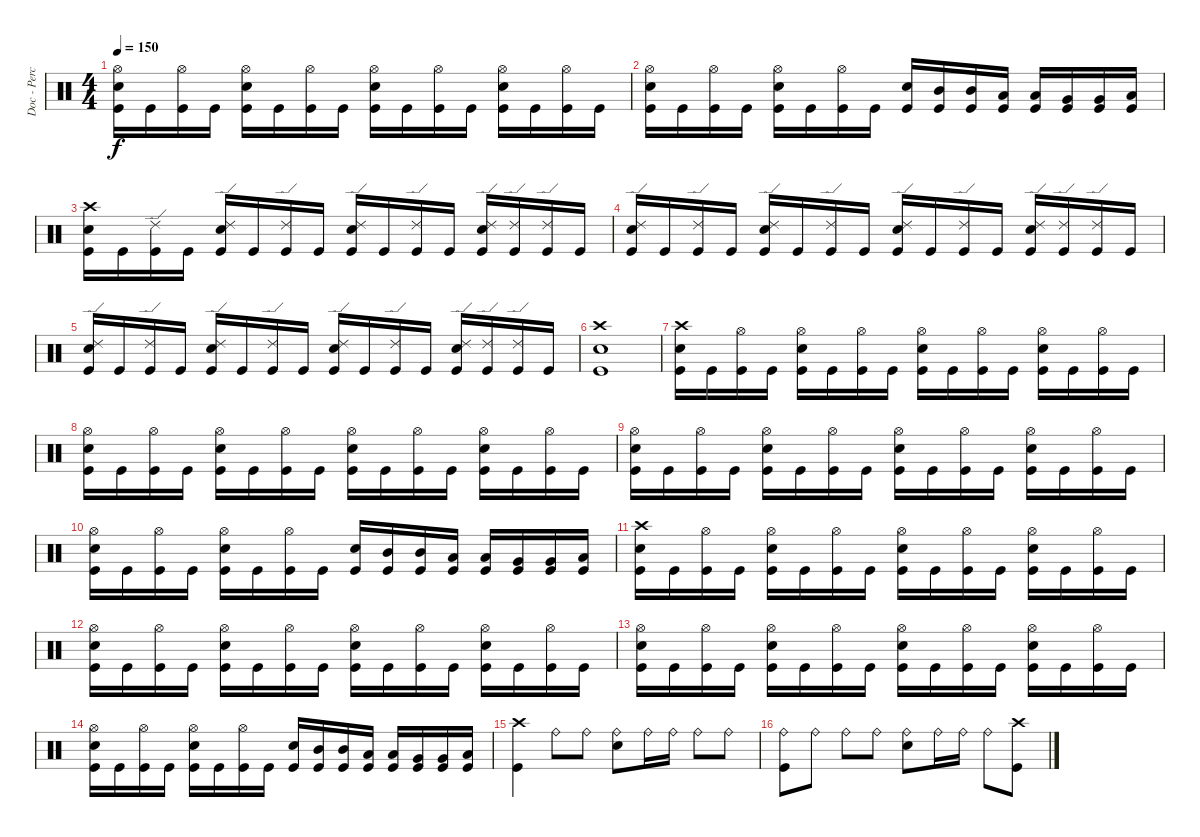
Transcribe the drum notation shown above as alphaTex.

\track ("Doc - Percussion" "Doc - Perc") {instrument percussion}
\staff {score}
\articulation defaults
\ts (4 4)
\tempo 150
\clef neutral
\ks c
("Hi-Hat (open)" "Electric Snare (hit)" "Kick (hit)").16{dy f} "Kick (hit)".16 ("Hi-Hat (open)" "Kick (hit)").16 "Kick (hit)".16 ("Hi-Hat (open)" "Electric Snare (hit)" "Kick (hit)").16 "Kick (hit)".16 ("Hi-Hat (open)" "Kick (hit)").16 "Kick (hit)".16 ("Hi-Hat (open)" "Electric Snare (hit)" "Kick (hit)").16 "Kick (hit)".16 ("Hi-Hat (open)" "Kick (hit)").16 "Kick (hit)".16 ("Hi-Hat (open)" "Electric Snare (hit)" "Kick (hit)").16 "Kick (hit)".16 ("Hi-Hat (open)" "Kick (hit)").16 "Kick (hit)".16 |
("Hi-Hat (open)" "Electric Snare (hit)" "Kick (hit)").16 "Kick (hit)".16 ("Hi-Hat (open)" "Kick (hit)").16 "Kick (hit)".16 ("Hi-Hat (open)" "Electric Snare (hit)" "Kick (hit)").16 "Kick (hit)".16 ("Hi-Hat (open)" "Kick (hit)").16 "Kick (hit)".16 ("Electric Snare (hit)" "Kick (hit)").16 ("Mid Tom (hit)" "Kick (hit)").16 ("Mid Tom (hit)" "Kick (hit)").16 ("Low Tom (hit)" "Kick (hit)").16 ("Low Tom (hit)" "Kick (hit)").16 ("Very Low Tom (hit)" "Kick (hit)").16 ("Very Low Tom (hit)" "Kick (hit)").16 ("Low Floor Tom (hit)" "Kick (hit)").16 |
("Crash high (hit)" "Electric Snare (hit)" "Kick (hit)").16 "Kick (hit)".16 ("Ride (edge) 2" "Kick (hit)").16 "Kick (hit)".16 ("Ride (edge) 2" "Electric Snare (hit)" "Kick (hit)").16 "Kick (hit)".16 ("Ride (edge) 2" "Kick (hit)").16 "Kick (hit)".16 ("Ride (edge) 2" "Electric Snare (hit)" "Kick (hit)").16 "Kick (hit)".16 ("Ride (edge) 2" "Kick (hit)").16 "Kick (hit)".16 ("Ride (edge) 2" "Electric Snare (hit)" "Kick (hit)").16 ("Ride (edge) 2" "Kick (hit)").16 ("Ride (edge) 2" "Kick (hit)").16 "Kick (hit)".16 |
("Ride (edge) 2" "Electric Snare (hit)" "Kick (hit)").16 "Kick (hit)".16 ("Ride (edge) 2" "Kick (hit)").16 "Kick (hit)".16 ("Ride (edge) 2" "Electric Snare (hit)" "Kick (hit)").16 "Kick (hit)".16 ("Ride (edge) 2" "Kick (hit)").16 "Kick (hit)".16 ("Ride (edge) 2" "Electric Snare (hit)" "Kick (hit)").16 "Kick (hit)".16 ("Ride (edge) 2" "Kick (hit)").16 "Kick (hit)".16 ("Ride (edge) 2" "Electric Snare (hit)" "Kick (hit)").16 ("Ride (edge) 2" "Kick (hit)").16 ("Ride (edge) 2" "Kick (hit)").16 "Kick (hit)".16 |
("Ride (edge) 2" "Electric Snare (hit)" "Kick (hit)").16 "Kick (hit)".16 ("Ride (edge) 2" "Kick (hit)").16 "Kick (hit)".16 ("Ride (edge) 2" "Electric Snare (hit)" "Kick (hit)").16 "Kick (hit)".16 ("Ride (edge) 2" "Kick (hit)").16 "Kick (hit)".16 ("Ride (edge) 2" "Electric Snare (hit)" "Kick (hit)").16 "Kick (hit)".16 ("Ride (edge) 2" "Kick (hit)").16 "Kick (hit)".16 ("Ride (edge) 2" "Electric Snare (hit)" "Kick (hit)").16 ("Ride (edge) 2" "Kick (hit)").16 ("Ride (edge) 2" "Kick (hit)").16 "Kick (hit)".16 |
("Crash high (hit)" "Electric Snare (hit)" "Kick (hit)").1 |
("Crash high (hit)" "Electric Snare (hit)" "Kick (hit)").16 "Kick (hit)".16 ("Hi-Hat (open)" "Kick (hit)").16 "Kick (hit)".16 ("Hi-Hat (open)" "Electric Snare (hit)" "Kick (hit)").16 "Kick (hit)".16 ("Hi-Hat (open)" "Kick (hit)").16 "Kick (hit)".16 ("Hi-Hat (open)" "Electric Snare (hit)" "Kick (hit)").16 "Kick (hit)".16 ("Hi-Hat (open)" "Kick (hit)").16 "Kick (hit)".16 ("Hi-Hat (open)" "Electric Snare (hit)" "Kick (hit)").16 "Kick (hit)".16 ("Hi-Hat (open)" "Kick (hit)").16 "Kick (hit)".16 |
("Hi-Hat (open)" "Electric Snare (hit)" "Kick (hit)").16 "Kick (hit)".16 ("Hi-Hat (open)" "Kick (hit)").16 "Kick (hit)".16 ("Hi-Hat (open)" "Electric Snare (hit)" "Kick (hit)").16 "Kick (hit)".16 ("Hi-Hat (open)" "Kick (hit)").16 "Kick (hit)".16 ("Hi-Hat (open)" "Electric Snare (hit)" "Kick (hit)").16 "Kick (hit)".16 ("Hi-Hat (open)" "Kick (hit)").16 "Kick (hit)".16 ("Hi-Hat (open)" "Electric Snare (hit)" "Kick (hit)").16 "Kick (hit)".16 ("Hi-Hat (open)" "Kick (hit)").16 "Kick (hit)".16 |
("Hi-Hat (open)" "Electric Snare (hit)" "Kick (hit)").16 "Kick (hit)".16 ("Hi-Hat (open)" "Kick (hit)").16 "Kick (hit)".16 ("Hi-Hat (open)" "Electric Snare (hit)" "Kick (hit)").16 "Kick (hit)".16 ("Hi-Hat (open)" "Kick (hit)").16 "Kick (hit)".16 ("Hi-Hat (open)" "Electric Snare (hit)" "Kick (hit)").16 "Kick (hit)".16 ("Hi-Hat (open)" "Kick (hit)").16 "Kick (hit)".16 ("Hi-Hat (open)" "Electric Snare (hit)" "Kick (hit)").16 "Kick (hit)".16 ("Hi-Hat (open)" "Kick (hit)").16 "Kick (hit)".16 |
("Hi-Hat (open)" "Electric Snare (hit)" "Kick (hit)").16 "Kick (hit)".16 ("Hi-Hat (open)" "Kick (hit)").16 "Kick (hit)".16 ("Hi-Hat (open)" "Electric Snare (hit)" "Kick (hit)").16 "Kick (hit)".16 ("Hi-Hat (open)" "Kick (hit)").16 "Kick (hit)".16 ("Electric Snare (hit)" "Kick (hit)").16 ("Mid Tom (hit)" "Kick (hit)").16 ("Mid Tom (hit)" "Kick (hit)").16 ("Low Tom (hit)" "Kick (hit)").16 ("Low Tom (hit)" "Kick (hit)").16 ("Very Low Tom (hit)" "Kick (hit)").16 ("Very Low Tom (hit)" "Kick (hit)").16 ("Low Floor Tom (hit)" "Kick (hit)").16 |
("Crash high (hit)" "Electric Snare (hit)" "Kick (hit)").16 "Kick (hit)".16 ("Hi-Hat (open)" "Kick (hit)").16 "Kick (hit)".16 ("Hi-Hat (open)" "Electric Snare (hit)" "Kick (hit)").16 "Kick (hit)".16 ("Hi-Hat (open)" "Kick (hit)").16 "Kick (hit)".16 ("Hi-Hat (open)" "Electric Snare (hit)" "Kick (hit)").16 "Kick (hit)".16 ("Hi-Hat (open)" "Kick (hit)").16 "Kick (hit)".16 ("Hi-Hat (open)" "Electric Snare (hit)" "Kick (hit)").16 "Kick (hit)".16 ("Hi-Hat (open)" "Kick (hit)").16 "Kick (hit)".16 |
("Hi-Hat (open)" "Electric Snare (hit)" "Kick (hit)").16 "Kick (hit)".16 ("Hi-Hat (open)" "Kick (hit)").16 "Kick (hit)".16 ("Hi-Hat (open)" "Electric Snare (hit)" "Kick (hit)").16 "Kick (hit)".16 ("Hi-Hat (open)" "Kick (hit)").16 "Kick (hit)".16 ("Hi-Hat (open)" "Electric Snare (hit)" "Kick (hit)").16 "Kick (hit)".16 ("Hi-Hat (open)" "Kick (hit)").16 "Kick (hit)".16 ("Hi-Hat (open)" "Electric Snare (hit)" "Kick (hit)").16 "Kick (hit)".16 ("Hi-Hat (open)" "Kick (hit)").16 "Kick (hit)".16 |
("Hi-Hat (open)" "Electric Snare (hit)" "Kick (hit)").16 "Kick (hit)".16 ("Hi-Hat (open)" "Kick (hit)").16 "Kick (hit)".16 ("Hi-Hat (open)" "Electric Snare (hit)" "Kick (hit)").16 "Kick (hit)".16 ("Hi-Hat (open)" "Kick (hit)").16 "Kick (hit)".16 ("Hi-Hat (open)" "Electric Snare (hit)" "Kick (hit)").16 "Kick (hit)".16 ("Hi-Hat (open)" "Kick (hit)").16 "Kick (hit)".16 ("Hi-Hat (open)" "Electric Snare (hit)" "Kick (hit)").16 "Kick (hit)".16 ("Hi-Hat (open)" "Kick (hit)").16 "Kick (hit)".16 |
("Hi-Hat (open)" "Electric Snare (hit)" "Kick (hit)").16 "Kick (hit)".16 ("Hi-Hat (open)" "Kick (hit)").16 "Kick (hit)".16 ("Hi-Hat (open)" "Electric Snare (hit)" "Kick (hit)").16 "Kick (hit)".16 ("Hi-Hat (open)" "Kick (hit)").16 "Kick (hit)".16 ("Electric Snare (hit)" "Kick (hit)").16 ("Mid Tom (hit)" "Kick (hit)").16 ("Mid Tom (hit)" "Kick (hit)").16 ("Low Tom (hit)" "Kick (hit)").16 ("Low Tom (hit)" "Kick (hit)").16 ("Very Low Tom (hit)" "Kick (hit)").16 ("Very Low Tom (hit)" "Kick (hit)").16 ("Low Floor Tom (hit)" "Kick (hit)").16 |
("Crash high (hit)" "Kick (hit)").4 "Ride (bell)".8 "Ride (bell)".8 ("Ride (bell)" "Electric Snare (hit)").8 "Ride (bell)".16 "Ride (bell)".16 "Ride (bell)".8 "Ride (bell)".8 |
("Ride (bell)" "Kick (hit)").8 "Ride (bell)".8 "Ride (bell)".8 "Ride (bell)".8 ("Ride (bell)" "Electric Snare (hit)").8 "Ride (bell)".16 "Ride (bell)".16 "Ride (bell)".8 ("Crash high (hit)" "Kick (hit)").8
